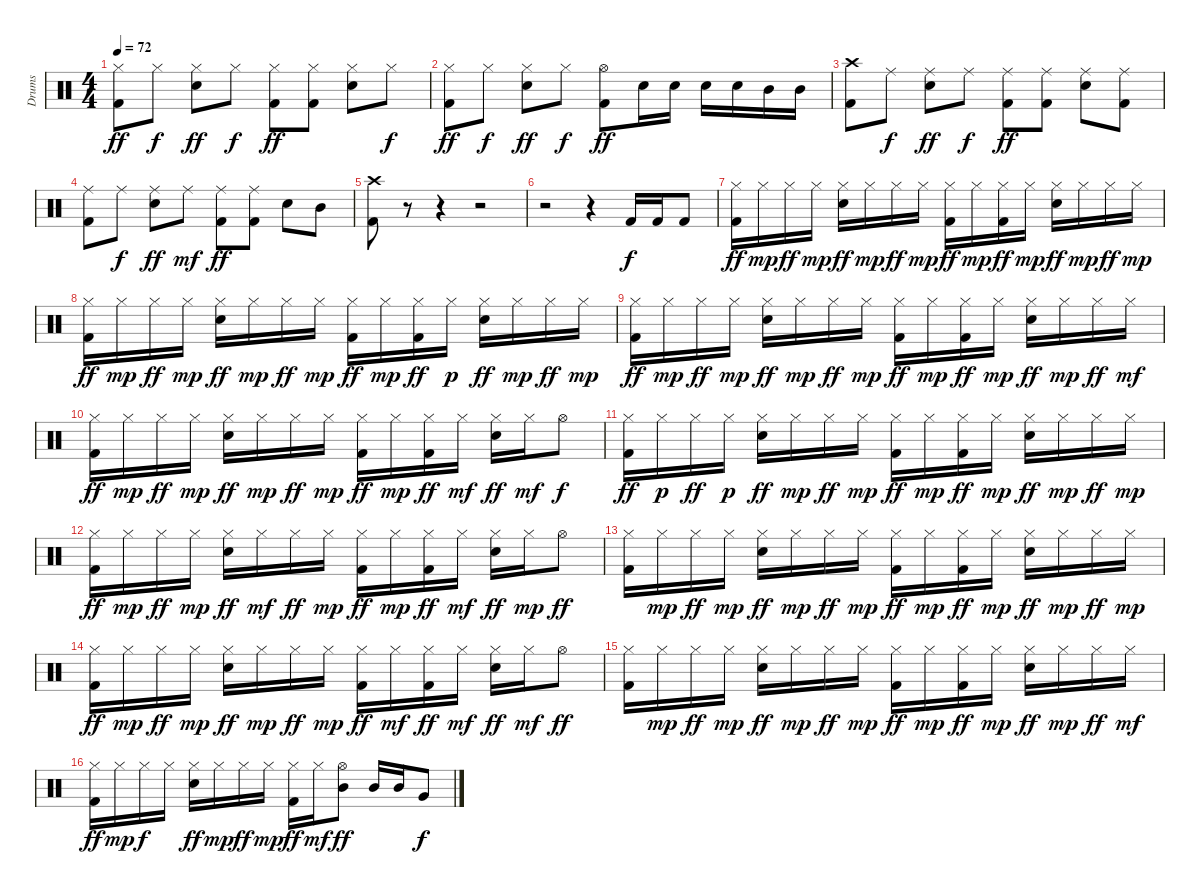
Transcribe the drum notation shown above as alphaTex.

\track ("Drums" "Drums") {instrument percussion}
\staff {score}
\articulation defaults
\ts (4 4)
\tempo 72
\clef neutral
\ks c
("Hi-Hat (closed)" "Kick (hit) 2").8{dy ff} "Hi-Hat (closed)".8{dy f} ("Hi-Hat (closed)" "Snare (hit) 2").8{dy ff} "Hi-Hat (closed)".8{dy f} ("Hi-Hat (closed)" "Kick (hit) 2").8{dy ff} ("Hi-Hat (closed)" "Kick (hit) 2").8 ("Hi-Hat (closed)" "Snare (hit) 2").8 "Hi-Hat (closed)".8{dy f} |
("Hi-Hat (closed)" "Kick (hit) 2").8{dy ff} "Hi-Hat (closed)".8{dy f} ("Hi-Hat (closed)" "Snare (hit) 2").8{dy ff} "Hi-Hat (closed)".8{dy f} ("Hi-Hat (open)" "Kick (hit) 2").8{dy ff} "Snare (hit) 2".16 "Snare (hit) 2".16 "Snare (hit) 2".16 "Snare (hit) 2".16 "Mid Tom (hit)".16 "Mid Tom (hit)".16 |
("Crash high (hit)" "Kick (hit) 2").8 "Ride (middle)".8{dy f} ("Ride (middle)" "Snare (hit) 2").8{dy ff} "Ride (middle)".8{dy f} ("Ride (middle)" "Kick (hit) 2").8{dy ff} ("Ride (middle)" "Kick (hit) 2").8 ("Ride (middle)" "Snare (hit) 2").8 ("Ride (middle)" "Kick (hit) 2").8 |
("Ride (middle)" "Kick (hit) 2").8 "Ride (middle)".8{dy f} ("Ride (middle)" "Snare (hit) 2").8{dy ff} "Ride (middle)".8{dy mf} ("Ride (middle)" "Kick (hit) 2").8{dy ff} ("Ride (middle)" "Kick (hit) 2").8 "Snare (hit) 2".8 "Mid Tom (hit)".8 |
("Crash high (hit)" "Kick (hit) 2").8 r.8 r.4 r.2 |
r.2 r.4 "Kick (hit) 2".16{dy f} "Kick (hit) 2".16 "Kick (hit) 2".8 |
("Hi-Hat (closed)" "Kick (hit) 2").16{dy ff} "Hi-Hat (closed)".16{dy mp} "Hi-Hat (closed)".16{dy ff} "Hi-Hat (closed)".16{dy mp} ("Hi-Hat (closed)" "Snare (hit) 2").16{dy ff} "Hi-Hat (closed)".16{dy mp} "Hi-Hat (closed)".16{dy ff} "Hi-Hat (closed)".16{dy mp} ("Hi-Hat (closed)" "Kick (hit) 2").16{dy ff} "Hi-Hat (closed)".16{dy mp} ("Hi-Hat (closed)" "Kick (hit) 2").16{dy ff} "Hi-Hat (closed)".16{dy mp} ("Hi-Hat (closed)" "Snare (hit) 2").16{dy ff} "Hi-Hat (closed)".16{dy mp} "Hi-Hat (closed)".16{dy ff} "Hi-Hat (closed)".16{dy mp} |
("Hi-Hat (closed)" "Kick (hit) 2").16{dy ff} "Hi-Hat (closed)".16{dy mp} "Hi-Hat (closed)".16{dy ff} "Hi-Hat (closed)".16{dy mp} ("Hi-Hat (closed)" "Snare (hit) 2").16{dy ff} "Hi-Hat (closed)".16{dy mp} "Hi-Hat (closed)".16{dy ff} "Hi-Hat (closed)".16{dy mp} ("Hi-Hat (closed)" "Kick (hit) 2").16{dy ff} "Hi-Hat (closed)".16{dy mp} ("Hi-Hat (closed)" "Kick (hit) 2").16{dy ff} "Hi-Hat (closed)".16{dy p} ("Hi-Hat (closed)" "Snare (hit) 2").16{dy ff} "Hi-Hat (closed)".16{dy mp} "Hi-Hat (closed)".16{dy ff} "Hi-Hat (closed)".16{dy mp} |
("Hi-Hat (closed)" "Kick (hit) 2").16{dy ff} "Hi-Hat (closed)".16{dy mp} "Hi-Hat (closed)".16{dy ff} "Hi-Hat (closed)".16{dy mp} ("Hi-Hat (closed)" "Snare (hit) 2").16{dy ff} "Hi-Hat (closed)".16{dy mp} "Hi-Hat (closed)".16{dy ff} "Hi-Hat (closed)".16{dy mp} ("Hi-Hat (closed)" "Kick (hit) 2").16{dy ff} "Hi-Hat (closed)".16{dy mp} ("Hi-Hat (closed)" "Kick (hit) 2").16{dy ff} "Hi-Hat (closed)".16{dy mp} ("Hi-Hat (closed)" "Snare (hit) 2").16{dy ff} "Hi-Hat (closed)".16{dy mp} "Hi-Hat (closed)".16{dy ff} "Hi-Hat (closed)".16{dy mf} |
("Hi-Hat (closed)" "Kick (hit) 2").16{dy ff} "Hi-Hat (closed)".16{dy mp} "Hi-Hat (closed)".16{dy ff} "Hi-Hat (closed)".16{dy mp} ("Hi-Hat (closed)" "Snare (hit) 2").16{dy ff} "Hi-Hat (closed)".16{dy mp} "Hi-Hat (closed)".16{dy ff} "Hi-Hat (closed)".16{dy mp} ("Hi-Hat (closed)" "Kick (hit) 2").16{dy ff} "Hi-Hat (closed)".16{dy mp} ("Hi-Hat (closed)" "Kick (hit) 2").16{dy ff} "Hi-Hat (closed)".16{dy mf} ("Hi-Hat (closed)" "Snare (hit) 2").16{dy ff} "Hi-Hat (closed)".16{dy mf} "Hi-Hat (open)".8{dy f} |
("Hi-Hat (closed)" "Kick (hit) 2").16{dy ff} "Hi-Hat (closed)".16{dy p} "Hi-Hat (closed)".16{dy ff} "Hi-Hat (closed)".16{dy p} ("Hi-Hat (closed)" "Snare (hit) 2").16{dy ff} "Hi-Hat (closed)".16{dy mp} "Hi-Hat (closed)".16{dy ff} "Hi-Hat (closed)".16{dy mp} ("Hi-Hat (closed)" "Kick (hit) 2").16{dy ff} "Hi-Hat (closed)".16{dy mp} ("Hi-Hat (closed)" "Kick (hit) 2").16{dy ff} "Hi-Hat (closed)".16{dy mp} ("Hi-Hat (closed)" "Snare (hit) 2").16{dy ff} "Hi-Hat (closed)".16{dy mp} "Hi-Hat (closed)".16{dy ff} "Hi-Hat (closed)".16{dy mp} |
("Hi-Hat (closed)" "Kick (hit) 2").16{dy ff} "Hi-Hat (closed)".16{dy mp} "Hi-Hat (closed)".16{dy ff} "Hi-Hat (closed)".16{dy mp} ("Hi-Hat (closed)" "Snare (hit) 2").16{dy ff} "Hi-Hat (closed)".16{dy mf} "Hi-Hat (closed)".16{dy ff} "Hi-Hat (closed)".16{dy mp} ("Hi-Hat (closed)" "Kick (hit) 2").16{dy ff} "Hi-Hat (closed)".16{dy mp} ("Hi-Hat (closed)" "Kick (hit) 2").16{dy ff} "Hi-Hat (closed)".16{dy mf} ("Hi-Hat (closed)" "Snare (hit) 2").16{dy ff} "Hi-Hat (closed)".16{dy mp} "Hi-Hat (open)".8{dy ff} |
("Hi-Hat (closed)" "Kick (hit) 2").16 "Hi-Hat (closed)".16{dy mp} "Hi-Hat (closed)".16{dy ff} "Hi-Hat (closed)".16{dy mp} ("Hi-Hat (closed)" "Snare (hit) 2").16{dy ff} "Hi-Hat (closed)".16{dy mp} "Hi-Hat (closed)".16{dy ff} "Hi-Hat (closed)".16{dy mp} ("Hi-Hat (closed)" "Kick (hit) 2").16{dy ff} "Hi-Hat (closed)".16{dy mp} ("Hi-Hat (closed)" "Kick (hit) 2").16{dy ff} "Hi-Hat (closed)".16{dy mp} ("Hi-Hat (closed)" "Snare (hit) 2").16{dy ff} "Hi-Hat (closed)".16{dy mp} "Hi-Hat (closed)".16{dy ff} "Hi-Hat (closed)".16{dy mp} |
("Hi-Hat (closed)" "Kick (hit) 2").16{dy ff} "Hi-Hat (closed)".16{dy mp} "Hi-Hat (closed)".16{dy ff} "Hi-Hat (closed)".16{dy mp} ("Hi-Hat (closed)" "Snare (hit) 2").16{dy ff} "Hi-Hat (closed)".16{dy mp} "Hi-Hat (closed)".16{dy ff} "Hi-Hat (closed)".16{dy mp} ("Hi-Hat (closed)" "Kick (hit) 2").16{dy ff} "Hi-Hat (closed)".16{dy mf} ("Hi-Hat (closed)" "Kick (hit) 2").16{dy ff} "Hi-Hat (closed)".16{dy mf} ("Hi-Hat (closed)" "Snare (hit) 2").16{dy ff} "Hi-Hat (closed)".16{dy mf} "Hi-Hat (open)".8{dy ff} |
("Hi-Hat (closed)" "Kick (hit) 2").16 "Hi-Hat (closed)".16{dy mp} "Hi-Hat (closed)".16{dy ff} "Hi-Hat (closed)".16{dy mp} ("Hi-Hat (closed)" "Snare (hit) 2").16{dy ff} "Hi-Hat (closed)".16{dy mp} "Hi-Hat (closed)".16{dy ff} "Hi-Hat (closed)".16{dy mp} ("Hi-Hat (closed)" "Kick (hit) 2").16{dy ff} "Hi-Hat (closed)".16{dy mp} ("Hi-Hat (closed)" "Kick (hit) 2").16{dy ff} "Hi-Hat (closed)".16{dy mp} ("Hi-Hat (closed)" "Snare (hit) 2").16{dy ff} "Hi-Hat (closed)".16{dy mp} "Hi-Hat (closed)".16{dy ff} "Hi-Hat (closed)".16{dy mf} |
("Hi-Hat (closed)" "Kick (hit) 2").16{dy ff} "Hi-Hat (closed)".16{dy mp} "Hi-Hat (closed)".16{dy f} "Hi-Hat (closed)".16 ("Hi-Hat (closed)" "Snare (hit) 2").16{dy ff} "Hi-Hat (closed)".16{dy mp} "Hi-Hat (closed)".16{dy ff} "Hi-Hat (closed)".16{dy mp} ("Hi-Hat (closed)" "Kick (hit) 2").16{dy ff} "Hi-Hat (closed)".16{dy mf} ("Hi-Hat (open)" "Mid Tom (hit)").8{dy ff} "Mid Tom (hit)".16 "Mid Tom (hit)".16 "Very Low Tom (hit)".8{dy f}
